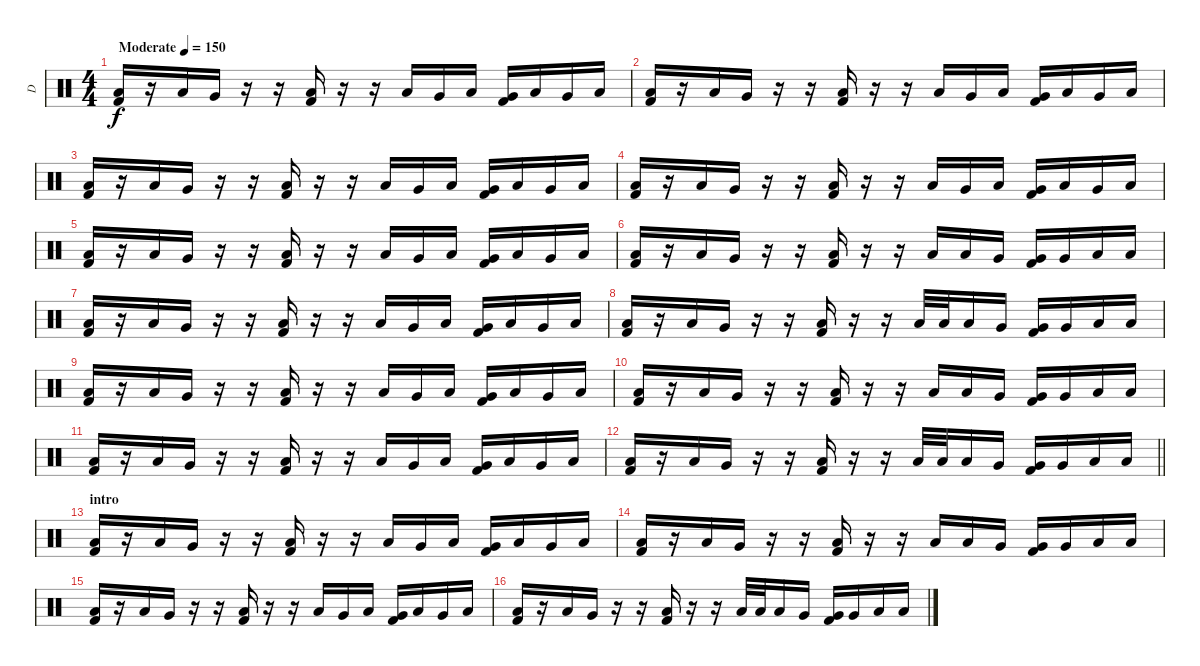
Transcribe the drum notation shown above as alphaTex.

\track ("D" "D") {instrument percussion}
\staff {score}
\articulation defaults
\ts (4 4)
\tempo (150 "Moderate")
\clef neutral
\ks c
("Low Floor Tom (hit)" "Kick (hit) 2").16{dy f} r.16 "Low Floor Tom (hit)".16 "Very Low Tom (hit)".16 r.16 r.16 ("Low Floor Tom (hit)" "Kick (hit) 2").16 r.16 r.16 "Low Floor Tom (hit)".16 "Very Low Tom (hit)".16 "Low Floor Tom (hit)".16 ("Very Low Tom (hit)" "Kick (hit) 2").16 "Low Floor Tom (hit)".16 "Very Low Tom (hit)".16 "Low Floor Tom (hit)".16 |
("Low Floor Tom (hit)" "Kick (hit) 2").16 r.16 "Low Floor Tom (hit)".16 "Very Low Tom (hit)".16 r.16 r.16 ("Low Floor Tom (hit)" "Kick (hit) 2").16 r.16 r.16 "Low Floor Tom (hit)".16 "Very Low Tom (hit)".16 "Low Floor Tom (hit)".16 ("Very Low Tom (hit)" "Kick (hit) 2").16 "Low Floor Tom (hit)".16 "Very Low Tom (hit)".16 "Low Floor Tom (hit)".16 |
("Low Floor Tom (hit)" "Kick (hit) 2").16 r.16 "Low Floor Tom (hit)".16 "Very Low Tom (hit)".16 r.16 r.16 ("Low Floor Tom (hit)" "Kick (hit) 2").16 r.16 r.16 "Low Floor Tom (hit)".16 "Very Low Tom (hit)".16 "Low Floor Tom (hit)".16 ("Very Low Tom (hit)" "Kick (hit) 2").16 "Low Floor Tom (hit)".16 "Very Low Tom (hit)".16 "Low Floor Tom (hit)".16 |
("Low Floor Tom (hit)" "Kick (hit) 2").16 r.16 "Low Floor Tom (hit)".16 "Very Low Tom (hit)".16 r.16 r.16 ("Low Floor Tom (hit)" "Kick (hit) 2").16 r.16 r.16 "Low Floor Tom (hit)".16 "Very Low Tom (hit)".16 "Low Floor Tom (hit)".16 ("Very Low Tom (hit)" "Kick (hit) 2").16 "Low Floor Tom (hit)".16 "Very Low Tom (hit)".16 "Low Floor Tom (hit)".16 |
("Low Floor Tom (hit)" "Kick (hit) 2").16 r.16 "Low Floor Tom (hit)".16 "Very Low Tom (hit)".16 r.16 r.16 ("Low Floor Tom (hit)" "Kick (hit) 2").16 r.16 r.16 "Low Floor Tom (hit)".16 "Very Low Tom (hit)".16 "Low Floor Tom (hit)".16 ("Very Low Tom (hit)" "Kick (hit) 2").16 "Low Floor Tom (hit)".16 "Very Low Tom (hit)".16 "Low Floor Tom (hit)".16 |
("Low Floor Tom (hit)" "Kick (hit) 2").16 r.16 "Low Floor Tom (hit)".16 "Very Low Tom (hit)".16 r.16 r.16 ("Low Floor Tom (hit)" "Kick (hit) 2").16 r.16 r.16 "Low Tom (hit)".16 "Low Tom (hit)".16 "Very Low Tom (hit)".16 ("Very Low Tom (hit)" "Kick (hit) 2").16 "Very Low Tom (hit)".16 "Low Floor Tom (hit)".16 "Low Floor Tom (hit)".16 |
("Low Floor Tom (hit)" "Kick (hit) 2").16 r.16 "Low Floor Tom (hit)".16 "Very Low Tom (hit)".16 r.16 r.16 ("Low Floor Tom (hit)" "Kick (hit) 2").16 r.16 r.16 "Low Floor Tom (hit)".16 "Very Low Tom (hit)".16 "Low Floor Tom (hit)".16 ("Very Low Tom (hit)" "Kick (hit) 2").16 "Low Floor Tom (hit)".16 "Very Low Tom (hit)".16 "Low Floor Tom (hit)".16 |
("Low Floor Tom (hit)" "Kick (hit) 2").16 r.16 "Low Floor Tom (hit)".16 "Very Low Tom (hit)".16 r.16 r.16 ("Low Floor Tom (hit)" "Kick (hit) 2").16 r.16 r.16 "Low Tom (hit)".32 "Low Tom (hit)".32 "Low Tom (hit)".16 "Very Low Tom (hit)".16 ("Very Low Tom (hit)" "Kick (hit) 2").16 "Very Low Tom (hit)".16 "Low Floor Tom (hit)".16 "Low Floor Tom (hit)".16 |
("Low Floor Tom (hit)" "Kick (hit) 2").16 r.16 "Low Floor Tom (hit)".16 "Very Low Tom (hit)".16 r.16 r.16 ("Low Floor Tom (hit)" "Kick (hit) 2").16 r.16 r.16 "Low Floor Tom (hit)".16 "Very Low Tom (hit)".16 "Low Floor Tom (hit)".16 ("Very Low Tom (hit)" "Kick (hit) 2").16 "Low Floor Tom (hit)".16 "Very Low Tom (hit)".16 "Low Floor Tom (hit)".16 |
("Low Floor Tom (hit)" "Kick (hit) 2").16 r.16 "Low Floor Tom (hit)".16 "Very Low Tom (hit)".16 r.16 r.16 ("Low Floor Tom (hit)" "Kick (hit) 2").16 r.16 r.16 "Low Tom (hit)".16 "Low Tom (hit)".16 "Very Low Tom (hit)".16 ("Very Low Tom (hit)" "Kick (hit) 2").16 "Very Low Tom (hit)".16 "Low Floor Tom (hit)".16 "Low Floor Tom (hit)".16 |
("Low Floor Tom (hit)" "Kick (hit) 2").16 r.16 "Low Floor Tom (hit)".16 "Very Low Tom (hit)".16 r.16 r.16 ("Low Floor Tom (hit)" "Kick (hit) 2").16 r.16 r.16 "Low Floor Tom (hit)".16 "Very Low Tom (hit)".16 "Low Floor Tom (hit)".16 ("Very Low Tom (hit)" "Kick (hit) 2").16 "Low Floor Tom (hit)".16 "Very Low Tom (hit)".16 "Low Floor Tom (hit)".16 |
\barLineRight lightlight
("Low Floor Tom (hit)" "Kick (hit) 2").16 r.16 "Low Floor Tom (hit)".16 "Very Low Tom (hit)".16 r.16 r.16 ("Low Floor Tom (hit)" "Kick (hit) 2").16 r.16 r.16 "Low Tom (hit)".32 "Low Tom (hit)".32 "Low Tom (hit)".16 "Very Low Tom (hit)".16 ("Very Low Tom (hit)" "Kick (hit) 2").16 "Very Low Tom (hit)".16 "Low Floor Tom (hit)".16 "Low Floor Tom (hit)".16 |
\section ("" "intro")
("Low Floor Tom (hit)" "Kick (hit) 2").16 r.16 "Low Floor Tom (hit)".16 "Very Low Tom (hit)".16 r.16 r.16 ("Low Floor Tom (hit)" "Kick (hit) 2").16 r.16 r.16 "Low Floor Tom (hit)".16 "Very Low Tom (hit)".16 "Low Floor Tom (hit)".16 ("Very Low Tom (hit)" "Kick (hit) 2").16 "Low Floor Tom (hit)".16 "Very Low Tom (hit)".16 "Low Floor Tom (hit)".16 |
("Low Floor Tom (hit)" "Kick (hit) 2").16 r.16 "Low Floor Tom (hit)".16 "Very Low Tom (hit)".16 r.16 r.16 ("Low Floor Tom (hit)" "Kick (hit) 2").16 r.16 r.16 "Low Tom (hit)".16 "Low Tom (hit)".16 "Very Low Tom (hit)".16 ("Very Low Tom (hit)" "Kick (hit) 2").16 "Very Low Tom (hit)".16 "Low Floor Tom (hit)".16 "Low Floor Tom (hit)".16 |
("Low Floor Tom (hit)" "Kick (hit) 2").16 r.16 "Low Floor Tom (hit)".16 "Very Low Tom (hit)".16 r.16 r.16 ("Low Floor Tom (hit)" "Kick (hit) 2").16 r.16 r.16 "Low Floor Tom (hit)".16 "Very Low Tom (hit)".16 "Low Floor Tom (hit)".16 ("Very Low Tom (hit)" "Kick (hit) 2").16 "Low Floor Tom (hit)".16 "Very Low Tom (hit)".16 "Low Floor Tom (hit)".16 |
("Low Floor Tom (hit)" "Kick (hit) 2").16 r.16 "Low Floor Tom (hit)".16 "Very Low Tom (hit)".16 r.16 r.16 ("Low Floor Tom (hit)" "Kick (hit) 2").16 r.16 r.16 "Low Tom (hit)".32 "Low Tom (hit)".32 "Low Tom (hit)".16 "Very Low Tom (hit)".16 ("Very Low Tom (hit)" "Kick (hit) 2").16 "Very Low Tom (hit)".16 "Low Floor Tom (hit)".16 "Low Floor Tom (hit)".16
